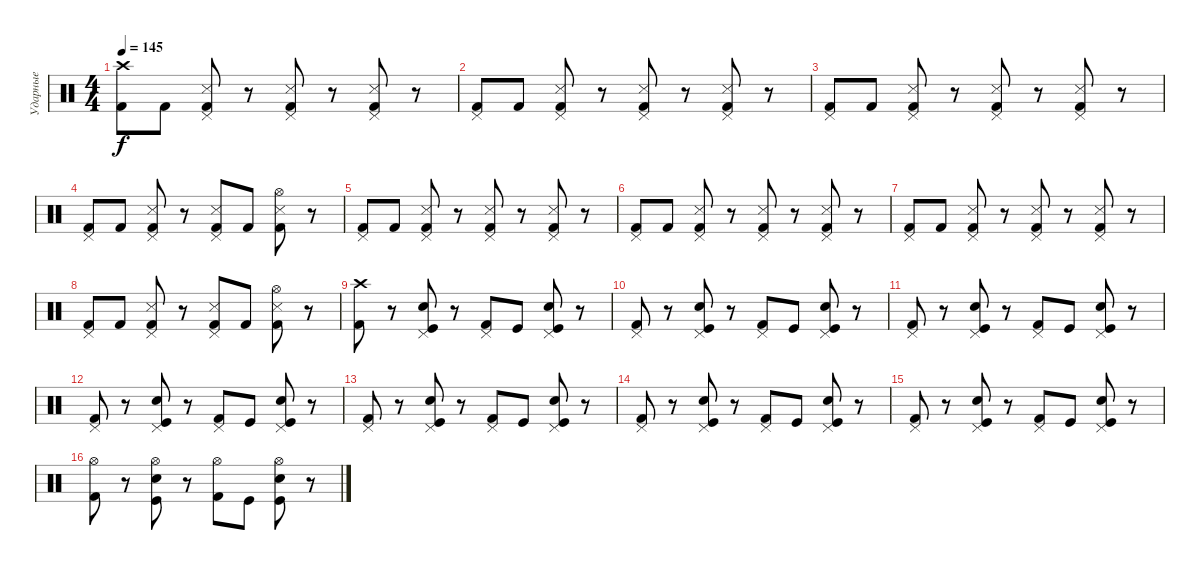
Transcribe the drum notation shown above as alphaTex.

\track ("Ударные" "Ударные") {instrument percussion}
\staff {score}
\articulation defaults
\ts (4 4)
\tempo 145
\clef neutral
\ks c
("Crash high (hit)" "Kick (hit) 2").8{dy f} "Kick (hit) 2".8 ("Pedal Hi-Hat (hit)" "Metronome (hit)" "Kick (hit) 2").8 r.8 ("Pedal Hi-Hat (hit)" "Metronome (hit)" "Kick (hit) 2").8 r.8 ("Pedal Hi-Hat (hit)" "Metronome (hit)" "Kick (hit) 2").8 r.8 |
("Pedal Hi-Hat (hit)" "Kick (hit) 2").8 "Kick (hit) 2".8 ("Pedal Hi-Hat (hit)" "Metronome (hit)" "Kick (hit) 2").8 r.8 ("Pedal Hi-Hat (hit)" "Metronome (hit)" "Kick (hit) 2").8 r.8 ("Pedal Hi-Hat (hit)" "Metronome (hit)" "Kick (hit) 2").8 r.8 |
("Pedal Hi-Hat (hit)" "Kick (hit) 2").8 "Kick (hit) 2".8 ("Pedal Hi-Hat (hit)" "Metronome (hit)" "Kick (hit) 2").8 r.8 ("Pedal Hi-Hat (hit)" "Metronome (hit)" "Kick (hit) 2").8 r.8 ("Pedal Hi-Hat (hit)" "Metronome (hit)" "Kick (hit) 2").8 r.8 |
("Pedal Hi-Hat (hit)" "Kick (hit) 2").8 "Kick (hit) 2".8 ("Pedal Hi-Hat (hit)" "Metronome (hit)" "Kick (hit) 2").8 r.8 ("Pedal Hi-Hat (hit)" "Metronome (hit)" "Kick (hit) 2").8 "Kick (hit) 2".8 ("Hi-Hat (open)" "Metronome (hit)" "Kick (hit) 2").8 r.8 |
("Pedal Hi-Hat (hit)" "Kick (hit) 2").8 "Kick (hit) 2".8 ("Pedal Hi-Hat (hit)" "Metronome (hit)" "Kick (hit) 2").8 r.8 ("Pedal Hi-Hat (hit)" "Metronome (hit)" "Kick (hit) 2").8 r.8 ("Pedal Hi-Hat (hit)" "Metronome (hit)" "Kick (hit) 2").8 r.8 |
("Pedal Hi-Hat (hit)" "Kick (hit) 2").8 "Kick (hit) 2".8 ("Pedal Hi-Hat (hit)" "Metronome (hit)" "Kick (hit) 2").8 r.8 ("Pedal Hi-Hat (hit)" "Metronome (hit)" "Kick (hit) 2").8 r.8 ("Pedal Hi-Hat (hit)" "Metronome (hit)" "Kick (hit) 2").8 r.8 |
("Pedal Hi-Hat (hit)" "Kick (hit) 2").8 "Kick (hit) 2".8 ("Pedal Hi-Hat (hit)" "Metronome (hit)" "Kick (hit) 2").8 r.8 ("Pedal Hi-Hat (hit)" "Metronome (hit)" "Kick (hit) 2").8 r.8 ("Pedal Hi-Hat (hit)" "Metronome (hit)" "Kick (hit) 2").8 r.8 |
("Pedal Hi-Hat (hit)" "Kick (hit) 2").8 "Kick (hit) 2".8 ("Pedal Hi-Hat (hit)" "Metronome (hit)" "Kick (hit) 2").8 r.8 ("Pedal Hi-Hat (hit)" "Metronome (hit)" "Kick (hit) 2").8 "Kick (hit) 2".8 ("Hi-Hat (open)" "Metronome (hit)" "Kick (hit) 2").8 r.8 |
("Crash high (hit)" "Kick (hit) 2").8 r.8 ("Pedal Hi-Hat (hit)" "Electric Snare (hit)" "Kick (hit)").8 r.8 ("Pedal Hi-Hat (hit)" "Kick (hit) 2").8 "Kick (hit)".8 ("Pedal Hi-Hat (hit)" "Electric Snare (hit)" "Kick (hit)").8 r.8 |
("Pedal Hi-Hat (hit)" "Kick (hit) 2").8 r.8 ("Pedal Hi-Hat (hit)" "Electric Snare (hit)" "Kick (hit)").8 r.8 ("Pedal Hi-Hat (hit)" "Kick (hit) 2").8 "Kick (hit)".8 ("Pedal Hi-Hat (hit)" "Electric Snare (hit)" "Kick (hit)").8 r.8 |
("Pedal Hi-Hat (hit)" "Kick (hit) 2").8 r.8 ("Pedal Hi-Hat (hit)" "Electric Snare (hit)" "Kick (hit)").8 r.8 ("Pedal Hi-Hat (hit)" "Kick (hit) 2").8 "Kick (hit)".8 ("Pedal Hi-Hat (hit)" "Electric Snare (hit)" "Kick (hit)").8 r.8 |
("Pedal Hi-Hat (hit)" "Kick (hit) 2").8 r.8 ("Pedal Hi-Hat (hit)" "Electric Snare (hit)" "Kick (hit)").8 r.8 ("Pedal Hi-Hat (hit)" "Kick (hit) 2").8 "Kick (hit)".8 ("Pedal Hi-Hat (hit)" "Electric Snare (hit)" "Kick (hit)").8 r.8 |
("Pedal Hi-Hat (hit)" "Kick (hit) 2").8 r.8 ("Pedal Hi-Hat (hit)" "Electric Snare (hit)" "Kick (hit)").8 r.8 ("Pedal Hi-Hat (hit)" "Kick (hit) 2").8 "Kick (hit)".8 ("Pedal Hi-Hat (hit)" "Electric Snare (hit)" "Kick (hit)").8 r.8 |
("Pedal Hi-Hat (hit)" "Kick (hit) 2").8 r.8 ("Pedal Hi-Hat (hit)" "Electric Snare (hit)" "Kick (hit)").8 r.8 ("Pedal Hi-Hat (hit)" "Kick (hit) 2").8 "Kick (hit)".8 ("Pedal Hi-Hat (hit)" "Electric Snare (hit)" "Kick (hit)").8 r.8 |
("Pedal Hi-Hat (hit)" "Kick (hit) 2").8 r.8 ("Pedal Hi-Hat (hit)" "Electric Snare (hit)" "Kick (hit)").8 r.8 ("Pedal Hi-Hat (hit)" "Kick (hit) 2").8 "Kick (hit)".8 ("Pedal Hi-Hat (hit)" "Electric Snare (hit)" "Kick (hit)").8 r.8 |
("Hi-Hat (open)" "Kick (hit) 2").8 r.8 ("Hi-Hat (open)" "Electric Snare (hit)" "Kick (hit)").8 r.8 ("Hi-Hat (open)" "Kick (hit) 2").8 "Kick (hit)".8 ("Hi-Hat (open)" "Electric Snare (hit)" "Kick (hit)").8 r.8
